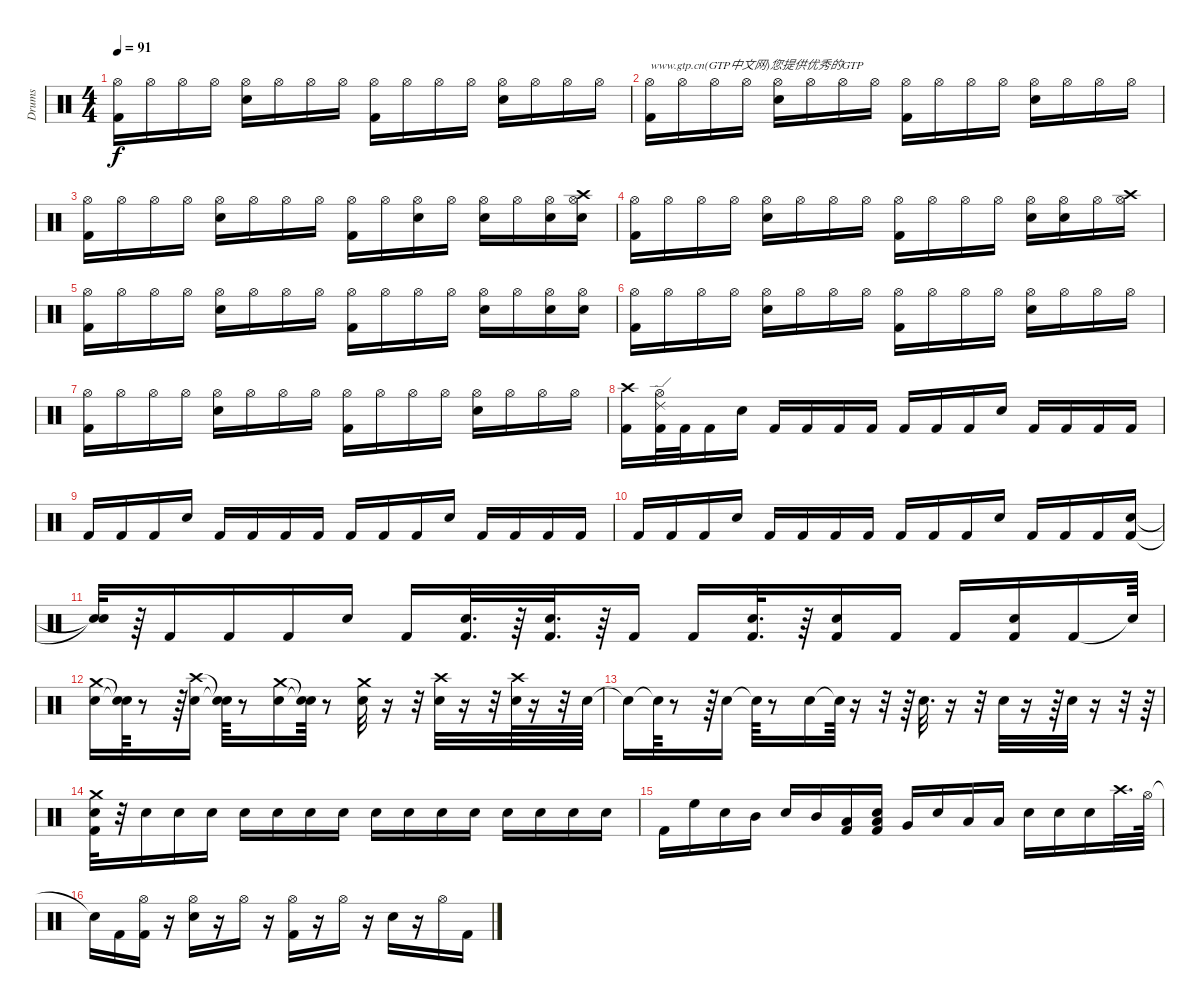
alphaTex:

\track ("Drums" "Drums") {instrument percussion}
\staff {score}
\articulation defaults
\ts (4 4)
\tempo 91
\clef neutral
\ks c
("Kick (hit) 2" "Hi-Hat (open)").16{dy f} "Hi-Hat (open)".16 "Hi-Hat (open)".16 "Hi-Hat (open)".16 ("Snare (hit) 2" "Hi-Hat (open)").16 "Hi-Hat (open)".16 "Hi-Hat (open)".16 "Hi-Hat (open)".16 ("Kick (hit) 2" "Hi-Hat (open)").16 "Hi-Hat (open)".16 "Hi-Hat (open)".16 "Hi-Hat (open)".16 ("Snare (hit) 2" "Hi-Hat (open)").16 "Hi-Hat (open)".16 "Hi-Hat (open)".16 "Hi-Hat (open)".16 |
("Kick (hit) 2" "Hi-Hat (open)").16{txt "www.gtp.cn(GTP中文网)您提供优秀的GTP"} "Hi-Hat (open)".16 "Hi-Hat (open)".16 "Hi-Hat (open)".16 ("Snare (hit) 2" "Hi-Hat (open)").16 "Hi-Hat (open)".16 "Hi-Hat (open)".16 "Hi-Hat (open)".16 ("Kick (hit) 2" "Hi-Hat (open)").16 "Hi-Hat (open)".16 "Hi-Hat (open)".16 "Hi-Hat (open)".16 ("Snare (hit) 2" "Hi-Hat (open)").16 "Hi-Hat (open)".16 "Hi-Hat (open)".16 "Hi-Hat (open)".16 |
("Kick (hit) 2" "Hi-Hat (open)").16 "Hi-Hat (open)".16 "Hi-Hat (open)".16 "Hi-Hat (open)".16 ("Snare (hit) 2" "Hi-Hat (open)").16 "Hi-Hat (open)".16 "Hi-Hat (open)".16 "Hi-Hat (open)".16 ("Kick (hit) 2" "Hi-Hat (open)").16 "Hi-Hat (open)".16 ("Snare (hit) 2" "Hi-Hat (open)").16 "Hi-Hat (open)".16 ("Snare (hit) 2" "Hi-Hat (open)").16 "Hi-Hat (open)".16 ("Snare (hit) 2" "Hi-Hat (open)").16 ("Snare (hit) 2" "Hi-Hat (open)" "Crash high (hit)").16 |
("Kick (hit) 2" "Hi-Hat (open)").16 "Hi-Hat (open)".16 "Hi-Hat (open)".16 "Hi-Hat (open)".16 ("Snare (hit) 2" "Hi-Hat (open)").16 "Hi-Hat (open)".16 "Hi-Hat (open)".16 "Hi-Hat (open)".16 ("Kick (hit) 2" "Hi-Hat (open)").16 "Hi-Hat (open)".16 "Hi-Hat (open)".16 "Hi-Hat (open)".16 ("Snare (hit) 2" "Hi-Hat (open)").16 ("Snare (hit) 2" "Hi-Hat (open)").16 "Hi-Hat (open)".16 ("Hi-Hat (open)" "Crash high (hit)").16 |
("Kick (hit) 2" "Hi-Hat (open)").16 "Hi-Hat (open)".16 "Hi-Hat (open)".16 "Hi-Hat (open)".16 ("Snare (hit) 2" "Hi-Hat (open)").16 "Hi-Hat (open)".16 "Hi-Hat (open)".16 "Hi-Hat (open)".16 ("Kick (hit) 2" "Hi-Hat (open)").16 "Hi-Hat (open)".16 "Hi-Hat (open)".16 "Hi-Hat (open)".16 ("Snare (hit) 2" "Hi-Hat (open)").16 "Hi-Hat (open)".16 ("Snare (hit) 2" "Hi-Hat (open)").16 ("Snare (hit) 2" "Hi-Hat (open)").16 |
("Kick (hit) 2" "Hi-Hat (open)").16 "Hi-Hat (open)".16 "Hi-Hat (open)".16 "Hi-Hat (open)".16 ("Snare (hit) 2" "Hi-Hat (open)").16 "Hi-Hat (open)".16 "Hi-Hat (open)".16 "Hi-Hat (open)".16 ("Kick (hit) 2" "Hi-Hat (open)").16 "Hi-Hat (open)".16 "Hi-Hat (open)".16 "Hi-Hat (open)".16 ("Snare (hit) 2" "Hi-Hat (open)").16 "Hi-Hat (open)".16 "Hi-Hat (open)".16 "Hi-Hat (open)".16 |
("Kick (hit) 2" "Hi-Hat (open)").16 "Hi-Hat (open)".16 "Hi-Hat (open)".16 "Hi-Hat (open)".16 ("Snare (hit) 2" "Hi-Hat (open)").16 "Hi-Hat (open)".16 "Hi-Hat (open)".16 "Hi-Hat (open)".16 ("Kick (hit) 2" "Hi-Hat (open)").16 "Hi-Hat (open)".16 "Hi-Hat (open)".16 "Hi-Hat (open)".16 ("Snare (hit) 2" "Hi-Hat (open)").16 "Hi-Hat (open)".16 "Hi-Hat (open)".16 "Hi-Hat (open)".16 |
("Kick (hit) 2" "Crash high (hit)").16 ("Kick (hit) 2" "Ride (edge) 2" "Hi-Hat (open)").32 "Kick (hit) 2".32 "Kick (hit) 2".16 "Snare (hit) 2".16 "Kick (hit) 2".16 "Kick (hit) 2".16 "Kick (hit) 2".16 "Kick (hit) 2".16 "Kick (hit) 2".16 "Kick (hit) 2".16 "Kick (hit) 2".16 "Snare (hit) 2".16 "Kick (hit) 2".16 "Kick (hit) 2".16 "Kick (hit) 2".16 "Kick (hit) 2".16 |
"Kick (hit) 2".16 "Kick (hit) 2".16 "Kick (hit) 2".16 "Snare (hit) 2".16 "Kick (hit) 2".16 "Kick (hit) 2".16 "Kick (hit) 2".16 "Kick (hit) 2".16 "Kick (hit) 2".16 "Kick (hit) 2".16 "Kick (hit) 2".16 "Snare (hit) 2".16 "Kick (hit) 2".16 "Kick (hit) 2".16 "Kick (hit) 2".16 "Kick (hit) 2".16 |
"Kick (hit) 2".16 "Kick (hit) 2".16 "Kick (hit) 2".16 "Snare (hit) 2".16 "Kick (hit) 2".16 "Kick (hit) 2".16 "Kick (hit) 2".16 "Kick (hit) 2".16 "Kick (hit) 2".16 "Kick (hit) 2".16 "Kick (hit) 2".16 "Snare (hit) 2".16 "Kick (hit) 2".16 "Kick (hit) 2".16 "Kick (hit) 2".16 ("Kick (hit) 2" "Snare (hit) 2").16 |
("Snare (hit)"{t} "Snare (hit)"{t}).32 r.64 "Kick (hit) 2".16 "Kick (hit) 2".16 "Kick (hit) 2".16 "Snare (hit) 2".16 "Kick (hit) 2".16 ("Kick (hit) 2" "Snare (hit) 2").32{d} r.64 ("Kick (hit) 2" "Snare (hit) 2").32{d} r.64 "Kick (hit) 2".16 "Kick (hit) 2".16 ("Kick (hit) 2" "Snare (hit) 2").32{d} r.64 ("Kick (hit) 2" "Snare (hit) 2").16 "Kick (hit) 2".16 "Kick (hit) 2".16 ("Kick (hit) 2" "Snare (hit) 2").16 "Kick (hit) 2".16 "Snare (hit)"{t}.64 |
("Snare (hit) 2" "Crash medium (hit)").16 ("Snare (hit)"{t} "Snare (hit)"{t}).64 r.8 r.64 ("Snare (hit) 2" "Crash high (hit)").16 ("Snare (hit)"{t} "Snare (hit)"{t}).64 r.8 ("Snare (hit) 2" "Crash medium (hit)").16 ("Snare (hit)"{t} "Snare (hit)"{t}).64 r.8 ("Snare (hit) 2" "Crash medium (hit)").32 r.16 r.32 ("Snare (hit) 2" "Crash high (hit)").32 r.16 r.32 ("Snare (hit) 2" "Crash high (hit)").64 r.16 r.32 "Snare (hit) 2".64 |
"Snare (hit)"{t}.16 "Snare (hit)"{t}.64 r.8 r.64 "Snare (hit) 2".16 "Snare (hit)"{t}.64 r.8 "Snare (hit) 2".16 "Snare (hit)"{t}.64 r.16 r.32 r.64 "Snare (hit) 2".32{d} r.16 r.32 "Snare (hit) 2".32 r.16 r.64 "Snare (hit) 2".32 r.16 r.32 r.64 |
("Crash medium (hit)" "Snare (hit) 2" "Kick (hit) 2").32 r.32 "Snare (hit) 2".16 "Snare (hit) 2".16 "Snare (hit) 2".16 "Snare (hit) 2".16 "Snare (hit) 2".16 "Snare (hit) 2".16 "Snare (hit) 2".16 "Snare (hit) 2".16 "Snare (hit) 2".16 "Snare (hit) 2".16 "Snare (hit) 2".16 "Snare (hit) 2".16 "Snare (hit) 2".16 "Snare (hit) 2".16 "Snare (hit) 2".16 |
"Kick (hit) 2".16 "High Floor Tom (hit)".16 "Snare (hit) 2".16 "Mid Tom (hit)".16 "Snare (hit) 2".16 "Mid Tom (hit)".16 ("Low Tom (hit)" "Kick (hit) 2").16 ("Snare (hit) 2" "Low Tom (hit)" "Kick (hit) 2").16 "Very Low Tom (hit)".16 "Snare (hit) 2".16 "Low Floor Tom (hit)".16 "Low Floor Tom (hit)".16 "Snare (hit) 2".16 "Snare (hit) 2".16 "Snare (hit) 2".16 "Crash high (hit)".32{d} "Hi-Hat (open)".64 |
"Snare (hit)"{t}.16 "Kick (hit) 2".16 ("Hi-Hat (open)" "Kick (hit) 2").16 r.16 ("Hi-Hat (open)" "Snare (hit) 2").16 r.16 "Hi-Hat (open)".16 r.16 ("Kick (hit) 2" "Hi-Hat (open)").16 r.16 "Hi-Hat (open)".16 r.16 "Snare (hit) 2".16 r.16 "Hi-Hat (open)".16 "Kick (hit) 2".16
